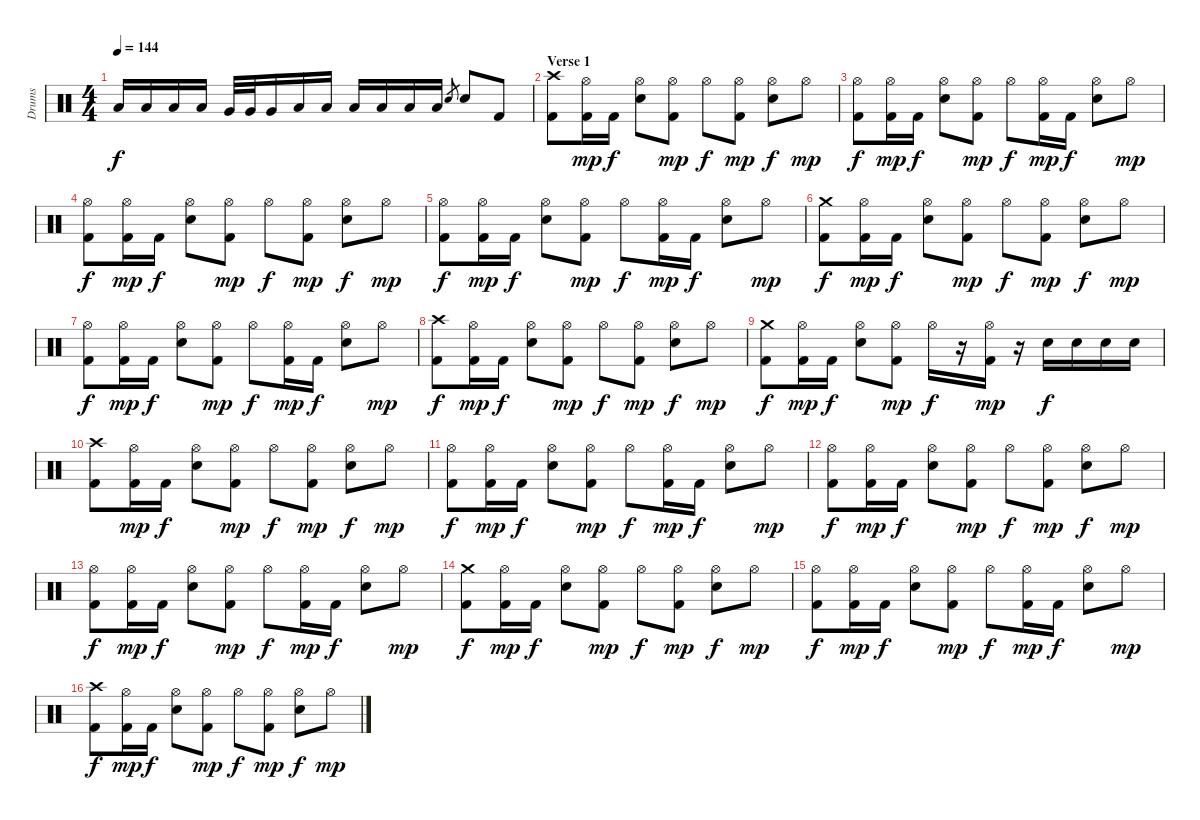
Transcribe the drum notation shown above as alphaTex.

\track ("Drums" "Drums") {instrument percussion}
\staff {score}
\articulation defaults
\ts (4 4)
\tempo 144
\clef neutral
\ks c "Low Tom (hit)".16{dy f} "Low Tom (hit)".16 "Low Tom (hit)".16 "Low Tom (hit)".16 "Very Low Tom (hit)".32 "Very Low Tom (hit)".32 "Very Low Tom (hit)".16 "Low Floor Tom (hit)".16 "Low Floor Tom (hit)".16 "Low Tom (hit)".16 "Low Tom (hit)".16 "Low Tom (hit)".16 "Low Tom (hit)".16 "Electric Snare (hit)".8{gr} "Electric Snare (hit)".8 "Kick (hit) 2".8
|
\section ("" "Verse 1")
("Kick (hit) 2" "Crash high (hit)").8 ("Kick (hit) 2" "Hi-Hat (open)").16{dy mp} "Kick (hit) 2".16{dy f} ("Electric Snare (hit)" "Hi-Hat (open)").8 ("Kick (hit) 2" "Hi-Hat (open)").8{dy mp} "Hi-Hat (open)".8{dy f} ("Kick (hit) 2" "Hi-Hat (open)").8{dy mp} ("Electric Snare (hit)" "Hi-Hat (open)").8{dy f} "Hi-Hat (open)".8{dy mp} |
("Kick (hit) 2" "Hi-Hat (open)").8{dy f} ("Kick (hit) 2" "Hi-Hat (open)").16{dy mp} "Kick (hit) 2".16{dy f} ("Electric Snare (hit)" "Hi-Hat (open)").8 ("Kick (hit) 2" "Hi-Hat (open)").8{dy mp} "Hi-Hat (open)".8{dy f} ("Kick (hit) 2" "Hi-Hat (open)").16{dy mp} "Kick (hit) 2".16{dy f} ("Electric Snare (hit)" "Hi-Hat (open)").8 "Hi-Hat (open)".8{dy mp} |
("Kick (hit) 2" "Hi-Hat (open)").8{dy f} ("Kick (hit) 2" "Hi-Hat (open)").16{dy mp} "Kick (hit) 2".16{dy f} ("Electric Snare (hit)" "Hi-Hat (open)").8 ("Kick (hit) 2" "Hi-Hat (open)").8{dy mp} "Hi-Hat (open)".8{dy f} ("Kick (hit) 2" "Hi-Hat (open)").8{dy mp} ("Electric Snare (hit)" "Hi-Hat (open)").8{dy f} "Hi-Hat (open)".8{dy mp} |
("Kick (hit) 2" "Hi-Hat (open)").8{dy f} ("Kick (hit) 2" "Hi-Hat (open)").16{dy mp} "Kick (hit) 2".16{dy f} ("Electric Snare (hit)" "Hi-Hat (open)").8 ("Kick (hit) 2" "Hi-Hat (open)").8{dy mp} "Hi-Hat (open)".8{dy f} ("Kick (hit) 2" "Hi-Hat (open)").16{dy mp} "Kick (hit) 2".16{dy f} ("Electric Snare (hit)" "Hi-Hat (open)").8 "Hi-Hat (open)".8{dy mp} |
("Kick (hit) 2" "Crash medium (hit)").8{dy f} ("Kick (hit) 2" "Hi-Hat (open)").16{dy mp} "Kick (hit) 2".16{dy f} ("Electric Snare (hit)" "Hi-Hat (open)").8 ("Kick (hit) 2" "Hi-Hat (open)").8{dy mp} "Hi-Hat (open)".8{dy f} ("Kick (hit) 2" "Hi-Hat (open)").8{dy mp} ("Electric Snare (hit)" "Hi-Hat (open)").8{dy f} "Hi-Hat (open)".8{dy mp} |
("Kick (hit) 2" "Hi-Hat (open)").8{dy f} ("Kick (hit) 2" "Hi-Hat (open)").16{dy mp} "Kick (hit) 2".16{dy f} ("Electric Snare (hit)" "Hi-Hat (open)").8 ("Kick (hit) 2" "Hi-Hat (open)").8{dy mp} "Hi-Hat (open)".8{dy f} ("Kick (hit) 2" "Hi-Hat (open)").16{dy mp} "Kick (hit) 2".16{dy f} ("Electric Snare (hit)" "Hi-Hat (open)").8 "Hi-Hat (open)".8{dy mp} |
("Kick (hit) 2" "Crash high (hit)").8{dy f} ("Kick (hit) 2" "Hi-Hat (open)").16{dy mp} "Kick (hit) 2".16{dy f} ("Electric Snare (hit)" "Hi-Hat (open)").8 ("Kick (hit) 2" "Hi-Hat (open)").8{dy mp} "Hi-Hat (open)".8{dy f} ("Kick (hit) 2" "Hi-Hat (open)").8{dy mp} ("Electric Snare (hit)" "Hi-Hat (open)").8{dy f} "Hi-Hat (open)".8{dy mp} |
("Kick (hit) 2" "Crash medium (hit)").8{dy f} ("Kick (hit) 2" "Hi-Hat (open)").16{dy mp} "Kick (hit) 2".16{dy f} ("Electric Snare (hit)" "Hi-Hat (open)").8 ("Kick (hit) 2" "Hi-Hat (open)").8{dy mp} "Hi-Hat (open)".16{dy f} r.16 ("Kick (hit) 2" "Hi-Hat (open)").16{dy mp} r.16 "Electric Snare (hit)".16{dy f} "Electric Snare (hit)".16 "Electric Snare (hit)".16 "Electric Snare (hit)".16 |
("Kick (hit) 2" "Crash high (hit)").8 ("Kick (hit) 2" "Hi-Hat (open)").16{dy mp} "Kick (hit) 2".16{dy f} ("Electric Snare (hit)" "Hi-Hat (open)").8 ("Kick (hit) 2" "Hi-Hat (open)").8{dy mp} "Hi-Hat (open)".8{dy f} ("Kick (hit) 2" "Hi-Hat (open)").8{dy mp} ("Electric Snare (hit)" "Hi-Hat (open)").8{dy f} "Hi-Hat (open)".8{dy mp} |
("Kick (hit) 2" "Hi-Hat (open)").8{dy f} ("Kick (hit) 2" "Hi-Hat (open)").16{dy mp} "Kick (hit) 2".16{dy f} ("Electric Snare (hit)" "Hi-Hat (open)").8 ("Kick (hit) 2" "Hi-Hat (open)").8{dy mp} "Hi-Hat (open)".8{dy f} ("Kick (hit) 2" "Hi-Hat (open)").16{dy mp} "Kick (hit) 2".16{dy f} ("Electric Snare (hit)" "Hi-Hat (open)").8 "Hi-Hat (open)".8{dy mp} |
("Kick (hit) 2" "Hi-Hat (open)").8{dy f} ("Kick (hit) 2" "Hi-Hat (open)").16{dy mp} "Kick (hit) 2".16{dy f} ("Electric Snare (hit)" "Hi-Hat (open)").8 ("Kick (hit) 2" "Hi-Hat (open)").8{dy mp} "Hi-Hat (open)".8{dy f} ("Kick (hit) 2" "Hi-Hat (open)").8{dy mp} ("Electric Snare (hit)" "Hi-Hat (open)").8{dy f} "Hi-Hat (open)".8{dy mp} |
("Kick (hit) 2" "Hi-Hat (open)").8{dy f} ("Kick (hit) 2" "Hi-Hat (open)").16{dy mp} "Kick (hit) 2".16{dy f} ("Electric Snare (hit)" "Hi-Hat (open)").8 ("Kick (hit) 2" "Hi-Hat (open)").8{dy mp} "Hi-Hat (open)".8{dy f} ("Kick (hit) 2" "Hi-Hat (open)").16{dy mp} "Kick (hit) 2".16{dy f} ("Electric Snare (hit)" "Hi-Hat (open)").8 "Hi-Hat (open)".8{dy mp} |
("Kick (hit) 2" "Crash medium (hit)").8{dy f} ("Kick (hit) 2" "Hi-Hat (open)").16{dy mp} "Kick (hit) 2".16{dy f} ("Electric Snare (hit)" "Hi-Hat (open)").8 ("Kick (hit) 2" "Hi-Hat (open)").8{dy mp} "Hi-Hat (open)".8{dy f} ("Kick (hit) 2" "Hi-Hat (open)").8{dy mp} ("Electric Snare (hit)" "Hi-Hat (open)").8{dy f} "Hi-Hat (open)".8{dy mp} |
("Kick (hit) 2" "Hi-Hat (open)").8{dy f} ("Kick (hit) 2" "Hi-Hat (open)").16{dy mp} "Kick (hit) 2".16{dy f} ("Electric Snare (hit)" "Hi-Hat (open)").8 ("Kick (hit) 2" "Hi-Hat (open)").8{dy mp} "Hi-Hat (open)".8{dy f} ("Kick (hit) 2" "Hi-Hat (open)").16{dy mp} "Kick (hit) 2".16{dy f} ("Electric Snare (hit)" "Hi-Hat (open)").8 "Hi-Hat (open)".8{dy mp} |
("Kick (hit) 2" "Crash high (hit)").8{dy f} ("Kick (hit) 2" "Hi-Hat (open)").16{dy mp} "Kick (hit) 2".16{dy f} ("Electric Snare (hit)" "Hi-Hat (open)").8 ("Kick (hit) 2" "Hi-Hat (open)").8{dy mp} "Hi-Hat (open)".8{dy f} ("Kick (hit) 2" "Hi-Hat (open)").8{dy mp} ("Electric Snare (hit)" "Hi-Hat (open)").8{dy f} "Hi-Hat (open)".8{dy mp}
